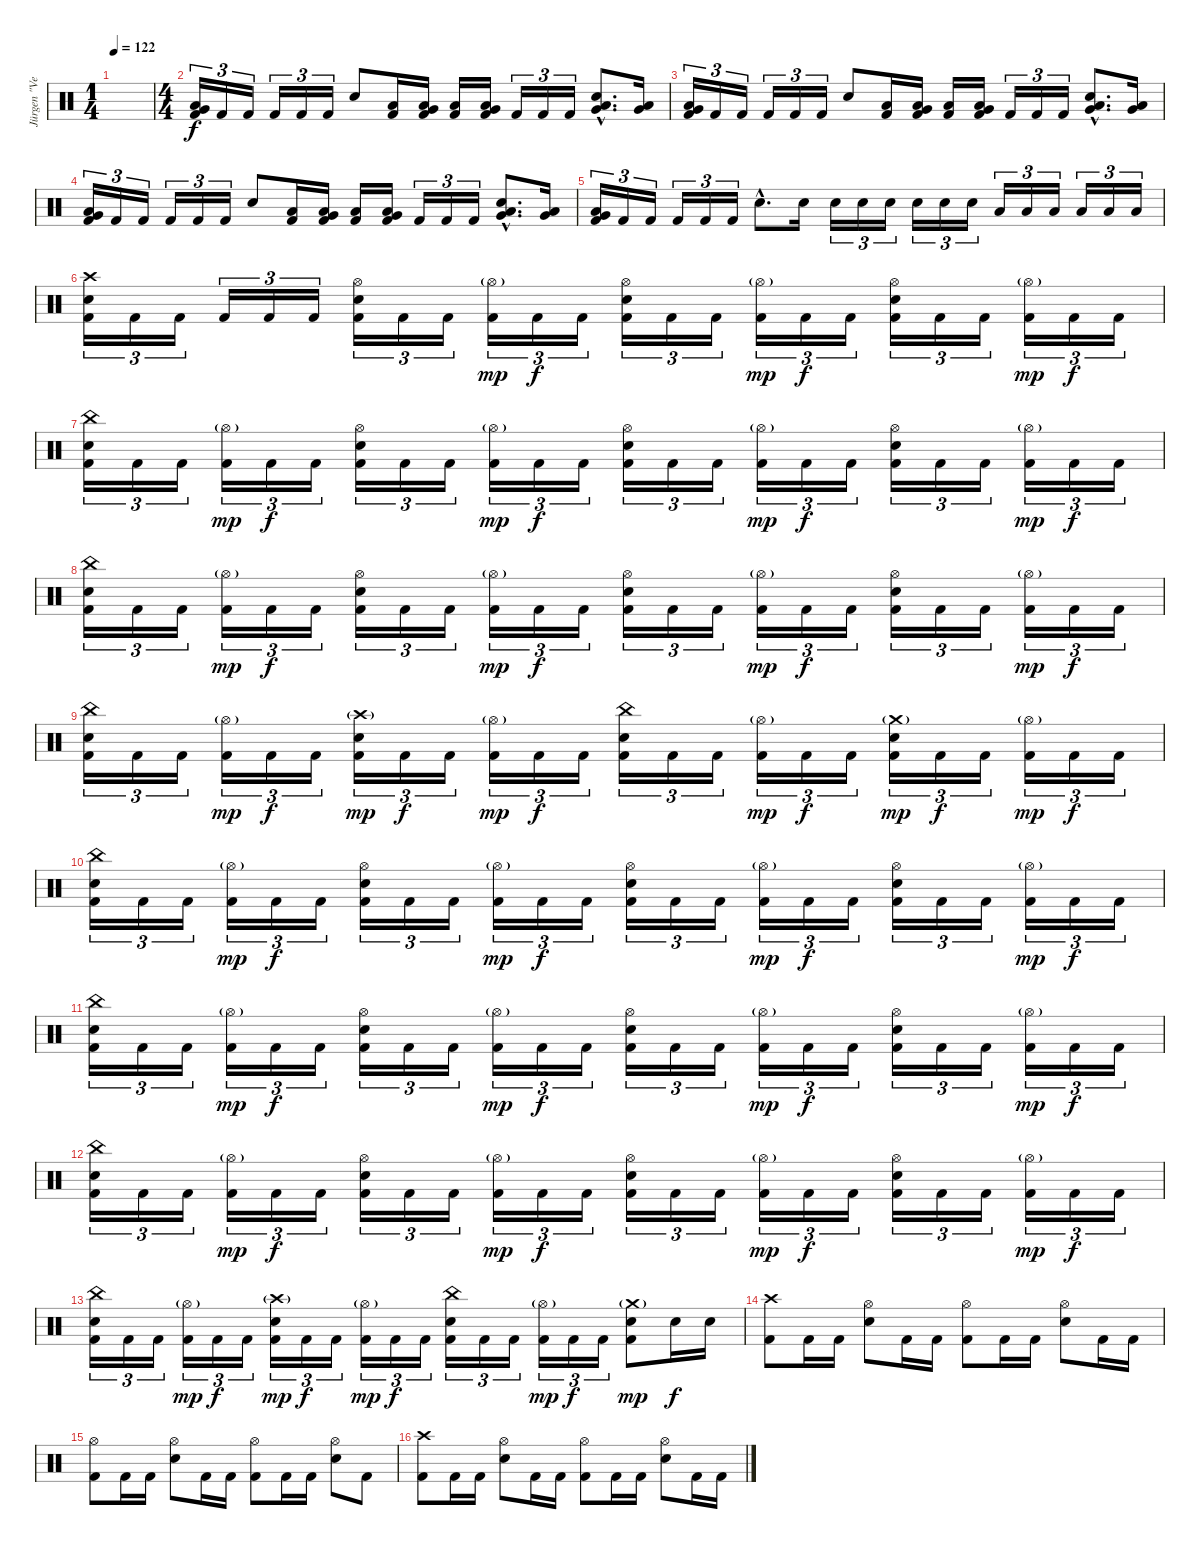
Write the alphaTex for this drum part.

\track ("Jürgen \"Ventor\" Reil Drums" "Jürgen \"Ve") {instrument percussion}
\staff {score}
\articulation defaults
\ts (1 4)
\tempo 122
\clef neutral
\ks c
|
\ts (4 4)
("Very Low Tom (hit)" "Low Floor Tom (hit)" "Kick (hit) 2").16{tu (3 2)} "Kick (hit) 2".16{tu (3 2)} "Kick (hit) 2".16{tu (3 2)} "Kick (hit) 2".16{tu (3 2)} "Kick (hit) 2".16{tu (3 2)} "Kick (hit) 2".16{tu (3 2)} "Snare (hit) 2".8 ("Low Floor Tom (hit)" "Kick (hit) 2").16 ("Low Floor Tom (hit)" "Very Low Tom (hit)" "Kick (hit) 2").16 ("Low Floor Tom (hit)" "Kick (hit) 2").16 ("Very Low Tom (hit)" "Low Floor Tom (hit)" "Kick (hit) 2").16 "Kick (hit) 2".16{tu (3 2)} "Kick (hit) 2".16{tu (3 2)} "Kick (hit) 2".16{tu (3 2)} ("Very Low Tom (hit)"{hac} "Low Floor Tom (hit)"{hac} "Snare (hit) 2"{hac}).8{d} ("Low Floor Tom (hit)" "Very Low Tom (hit)").16 |
("Very Low Tom (hit)" "Low Floor Tom (hit)" "Kick (hit) 2").16{tu (3 2)} "Kick (hit) 2".16{tu (3 2)} "Kick (hit) 2".16{tu (3 2)} "Kick (hit) 2".16{tu (3 2)} "Kick (hit) 2".16{tu (3 2)} "Kick (hit) 2".16{tu (3 2)} "Snare (hit) 2".8 ("Low Floor Tom (hit)" "Kick (hit) 2").16 ("Low Floor Tom (hit)" "Very Low Tom (hit)" "Kick (hit) 2").16 ("Low Floor Tom (hit)" "Kick (hit) 2").16 ("Very Low Tom (hit)" "Low Floor Tom (hit)" "Kick (hit) 2").16 "Kick (hit) 2".16{tu (3 2)} "Kick (hit) 2".16{tu (3 2)} "Kick (hit) 2".16{tu (3 2)} ("Very Low Tom (hit)"{hac} "Low Floor Tom (hit)"{hac} "Snare (hit) 2"{hac}).8{d} ("Low Floor Tom (hit)" "Very Low Tom (hit)").16 |
("Very Low Tom (hit)" "Low Floor Tom (hit)" "Kick (hit) 2").16{tu (3 2)} "Kick (hit) 2".16{tu (3 2)} "Kick (hit) 2".16{tu (3 2)} "Kick (hit) 2".16{tu (3 2)} "Kick (hit) 2".16{tu (3 2)} "Kick (hit) 2".16{tu (3 2)} "Snare (hit) 2".8 ("Low Floor Tom (hit)" "Kick (hit) 2").16 ("Low Floor Tom (hit)" "Very Low Tom (hit)" "Kick (hit) 2").16 ("Low Floor Tom (hit)" "Kick (hit) 2").16 ("Very Low Tom (hit)" "Low Floor Tom (hit)" "Kick (hit) 2").16 "Kick (hit) 2".16{tu (3 2)} "Kick (hit) 2".16{tu (3 2)} "Kick (hit) 2".16{tu (3 2)} ("Very Low Tom (hit)"{hac} "Low Floor Tom (hit)"{hac} "Snare (hit) 2"{hac}).8{d} ("Low Floor Tom (hit)" "Very Low Tom (hit)").16 |
("Very Low Tom (hit)" "Low Floor Tom (hit)" "Kick (hit) 2").16{tu (3 2)} "Kick (hit) 2".16{tu (3 2)} "Kick (hit) 2".16{tu (3 2)} "Kick (hit) 2".16{tu (3 2)} "Kick (hit) 2".16{tu (3 2)} "Kick (hit) 2".16{tu (3 2)} "Snare (hit) 2"{hac}.8{d} "Snare (hit) 2".16 "Snare (hit) 2".16{tu (3 2)} "Snare (hit) 2".16{tu (3 2)} "Snare (hit) 2".16{tu (3 2)} "Snare (hit) 2".16{tu (3 2)} "Snare (hit) 2".16{tu (3 2)} "Snare (hit) 2".16{tu (3 2)} "Low Tom (hit)".16{tu (3 2)} "Low Tom (hit)".16{tu (3 2)} "Low Tom (hit)".16{tu (3 2)} "Low Tom (hit)".16{tu (3 2)} "Low Tom (hit)".16{tu (3 2)} "Low Tom (hit)".16{tu (3 2)} |
("Crash high (hit)" "Snare (hit) 2" "Kick (hit) 2").16{tu (3 2)} "Kick (hit) 2".16{tu (3 2)} "Kick (hit) 2".16{tu (3 2)} "Kick (hit) 2".16{tu (3 2)} "Kick (hit) 2".16{tu (3 2)} "Kick (hit) 2".16{tu (3 2)} ("Hi-Hat (open)" "Snare (hit) 2" "Kick (hit) 2").16{tu (3 2)} "Kick (hit) 2".16{tu (3 2)} "Kick (hit) 2".16{tu (3 2)} ("Hi-Hat (open)"{g} "Kick (hit) 2").16{tu (3 2) dy mp} "Kick (hit) 2".16{tu (3 2) dy f} "Kick (hit) 2".16{tu (3 2)} ("Hi-Hat (open)" "Snare (hit) 2" "Kick (hit) 2").16{tu (3 2)} "Kick (hit) 2".16{tu (3 2)} "Kick (hit) 2".16{tu (3 2)} ("Hi-Hat (open)"{g} "Kick (hit) 2").16{tu (3 2) dy mp} "Kick (hit) 2".16{tu (3 2) dy f} "Kick (hit) 2".16{tu (3 2)} ("Hi-Hat (open)" "Snare (hit) 2" "Kick (hit) 2").16{tu (3 2)} "Kick (hit) 2".16{tu (3 2)} "Kick (hit) 2".16{tu (3 2)} ("Hi-Hat (open)"{g} "Kick (hit) 2").16{tu (3 2) dy mp} "Kick (hit) 2".16{tu (3 2) dy f} "Kick (hit) 2".16{tu (3 2)} |
("China (hit)" "Snare (hit) 2" "Kick (hit) 2").16{tu (3 2)} "Kick (hit) 2".16{tu (3 2)} "Kick (hit) 2".16{tu (3 2)} ("Hi-Hat (open)"{g} "Kick (hit) 2").16{tu (3 2) dy mp} "Kick (hit) 2".16{tu (3 2) dy f} "Kick (hit) 2".16{tu (3 2)} ("Hi-Hat (open)" "Snare (hit) 2" "Kick (hit) 2").16{tu (3 2)} "Kick (hit) 2".16{tu (3 2)} "Kick (hit) 2".16{tu (3 2)} ("Hi-Hat (open)"{g} "Kick (hit) 2").16{tu (3 2) dy mp} "Kick (hit) 2".16{tu (3 2) dy f} "Kick (hit) 2".16{tu (3 2)} ("Hi-Hat (open)" "Snare (hit) 2" "Kick (hit) 2").16{tu (3 2)} "Kick (hit) 2".16{tu (3 2)} "Kick (hit) 2".16{tu (3 2)} ("Hi-Hat (open)"{g} "Kick (hit) 2").16{tu (3 2) dy mp} "Kick (hit) 2".16{tu (3 2) dy f} "Kick (hit) 2".16{tu (3 2)} ("Hi-Hat (open)" "Snare (hit) 2" "Kick (hit) 2").16{tu (3 2)} "Kick (hit) 2".16{tu (3 2)} "Kick (hit) 2".16{tu (3 2)} ("Hi-Hat (open)"{g} "Kick (hit) 2").16{tu (3 2) dy mp} "Kick (hit) 2".16{tu (3 2) dy f} "Kick (hit) 2".16{tu (3 2)} |
("China (hit)" "Snare (hit) 2" "Kick (hit) 2").16{tu (3 2)} "Kick (hit) 2".16{tu (3 2)} "Kick (hit) 2".16{tu (3 2)} ("Hi-Hat (open)"{g} "Kick (hit) 2").16{tu (3 2) dy mp} "Kick (hit) 2".16{tu (3 2) dy f} "Kick (hit) 2".16{tu (3 2)} ("Hi-Hat (open)" "Snare (hit) 2" "Kick (hit) 2").16{tu (3 2)} "Kick (hit) 2".16{tu (3 2)} "Kick (hit) 2".16{tu (3 2)} ("Hi-Hat (open)"{g} "Kick (hit) 2").16{tu (3 2) dy mp} "Kick (hit) 2".16{tu (3 2) dy f} "Kick (hit) 2".16{tu (3 2)} ("Hi-Hat (open)" "Snare (hit) 2" "Kick (hit) 2").16{tu (3 2)} "Kick (hit) 2".16{tu (3 2)} "Kick (hit) 2".16{tu (3 2)} ("Hi-Hat (open)"{g} "Kick (hit) 2").16{tu (3 2) dy mp} "Kick (hit) 2".16{tu (3 2) dy f} "Kick (hit) 2".16{tu (3 2)} ("Hi-Hat (open)" "Snare (hit) 2" "Kick (hit) 2").16{tu (3 2)} "Kick (hit) 2".16{tu (3 2)} "Kick (hit) 2".16{tu (3 2)} ("Hi-Hat (open)"{g} "Kick (hit) 2").16{tu (3 2) dy mp} "Kick (hit) 2".16{tu (3 2) dy f} "Kick (hit) 2".16{tu (3 2)} |
("China (hit)" "Snare (hit) 2" "Kick (hit) 2").16{tu (3 2)} "Kick (hit) 2".16{tu (3 2)} "Kick (hit) 2".16{tu (3 2)} ("Hi-Hat (open)"{g} "Kick (hit) 2").16{tu (3 2) dy mp} "Kick (hit) 2".16{tu (3 2) dy f} "Kick (hit) 2".16{tu (3 2)} ("Crash high (hit)"{g} "Snare (hit) 2" "Kick (hit) 2").16{tu (3 2) dy mp} "Kick (hit) 2".16{tu (3 2) dy f} "Kick (hit) 2".16{tu (3 2)} ("Hi-Hat (open)"{g} "Kick (hit) 2").16{tu (3 2) dy mp} "Kick (hit) 2".16{tu (3 2) dy f} "Kick (hit) 2".16{tu (3 2)} ("China (hit)" "Snare (hit) 2" "Kick (hit) 2").16{tu (3 2)} "Kick (hit) 2".16{tu (3 2)} "Kick (hit) 2".16{tu (3 2)} ("Hi-Hat (open)"{g} "Kick (hit) 2").16{tu (3 2) dy mp} "Kick (hit) 2".16{tu (3 2) dy f} "Kick (hit) 2".16{tu (3 2)} ("Crash medium (hit)"{g} "Snare (hit) 2" "Kick (hit) 2").16{tu (3 2) dy mp} "Kick (hit) 2".16{tu (3 2) dy f} "Kick (hit) 2".16{tu (3 2)} ("Hi-Hat (open)"{g} "Kick (hit) 2").16{tu (3 2) dy mp} "Kick (hit) 2".16{tu (3 2) dy f} "Kick (hit) 2".16{tu (3 2)} |
("China (hit)" "Snare (hit) 2" "Kick (hit) 2").16{tu (3 2)} "Kick (hit) 2".16{tu (3 2)} "Kick (hit) 2".16{tu (3 2)} ("Hi-Hat (open)"{g} "Kick (hit) 2").16{tu (3 2) dy mp} "Kick (hit) 2".16{tu (3 2) dy f} "Kick (hit) 2".16{tu (3 2)} ("Hi-Hat (open)" "Snare (hit) 2" "Kick (hit) 2").16{tu (3 2)} "Kick (hit) 2".16{tu (3 2)} "Kick (hit) 2".16{tu (3 2)} ("Hi-Hat (open)"{g} "Kick (hit) 2").16{tu (3 2) dy mp} "Kick (hit) 2".16{tu (3 2) dy f} "Kick (hit) 2".16{tu (3 2)} ("Hi-Hat (open)" "Snare (hit) 2" "Kick (hit) 2").16{tu (3 2)} "Kick (hit) 2".16{tu (3 2)} "Kick (hit) 2".16{tu (3 2)} ("Hi-Hat (open)"{g} "Kick (hit) 2").16{tu (3 2) dy mp} "Kick (hit) 2".16{tu (3 2) dy f} "Kick (hit) 2".16{tu (3 2)} ("Hi-Hat (open)" "Snare (hit) 2" "Kick (hit) 2").16{tu (3 2)} "Kick (hit) 2".16{tu (3 2)} "Kick (hit) 2".16{tu (3 2)} ("Hi-Hat (open)"{g} "Kick (hit) 2").16{tu (3 2) dy mp} "Kick (hit) 2".16{tu (3 2) dy f} "Kick (hit) 2".16{tu (3 2)} |
("China (hit)" "Snare (hit) 2" "Kick (hit) 2").16{tu (3 2)} "Kick (hit) 2".16{tu (3 2)} "Kick (hit) 2".16{tu (3 2)} ("Hi-Hat (open)"{g} "Kick (hit) 2").16{tu (3 2) dy mp} "Kick (hit) 2".16{tu (3 2) dy f} "Kick (hit) 2".16{tu (3 2)} ("Hi-Hat (open)" "Snare (hit) 2" "Kick (hit) 2").16{tu (3 2)} "Kick (hit) 2".16{tu (3 2)} "Kick (hit) 2".16{tu (3 2)} ("Hi-Hat (open)"{g} "Kick (hit) 2").16{tu (3 2) dy mp} "Kick (hit) 2".16{tu (3 2) dy f} "Kick (hit) 2".16{tu (3 2)} ("Hi-Hat (open)" "Snare (hit) 2" "Kick (hit) 2").16{tu (3 2)} "Kick (hit) 2".16{tu (3 2)} "Kick (hit) 2".16{tu (3 2)} ("Hi-Hat (open)"{g} "Kick (hit) 2").16{tu (3 2) dy mp} "Kick (hit) 2".16{tu (3 2) dy f} "Kick (hit) 2".16{tu (3 2)} ("Hi-Hat (open)" "Snare (hit) 2" "Kick (hit) 2").16{tu (3 2)} "Kick (hit) 2".16{tu (3 2)} "Kick (hit) 2".16{tu (3 2)} ("Hi-Hat (open)"{g} "Kick (hit) 2").16{tu (3 2) dy mp} "Kick (hit) 2".16{tu (3 2) dy f} "Kick (hit) 2".16{tu (3 2)} |
("China (hit)" "Snare (hit) 2" "Kick (hit) 2").16{tu (3 2)} "Kick (hit) 2".16{tu (3 2)} "Kick (hit) 2".16{tu (3 2)} ("Hi-Hat (open)"{g} "Kick (hit) 2").16{tu (3 2) dy mp} "Kick (hit) 2".16{tu (3 2) dy f} "Kick (hit) 2".16{tu (3 2)} ("Hi-Hat (open)" "Snare (hit) 2" "Kick (hit) 2").16{tu (3 2)} "Kick (hit) 2".16{tu (3 2)} "Kick (hit) 2".16{tu (3 2)} ("Hi-Hat (open)"{g} "Kick (hit) 2").16{tu (3 2) dy mp} "Kick (hit) 2".16{tu (3 2) dy f} "Kick (hit) 2".16{tu (3 2)} ("Hi-Hat (open)" "Snare (hit) 2" "Kick (hit) 2").16{tu (3 2)} "Kick (hit) 2".16{tu (3 2)} "Kick (hit) 2".16{tu (3 2)} ("Hi-Hat (open)"{g} "Kick (hit) 2").16{tu (3 2) dy mp} "Kick (hit) 2".16{tu (3 2) dy f} "Kick (hit) 2".16{tu (3 2)} ("Hi-Hat (open)" "Snare (hit) 2" "Kick (hit) 2").16{tu (3 2)} "Kick (hit) 2".16{tu (3 2)} "Kick (hit) 2".16{tu (3 2)} ("Hi-Hat (open)"{g} "Kick (hit) 2").16{tu (3 2) dy mp} "Kick (hit) 2".16{tu (3 2) dy f} "Kick (hit) 2".16{tu (3 2)} |
("China (hit)" "Snare (hit) 2" "Kick (hit) 2").16{tu (3 2)} "Kick (hit) 2".16{tu (3 2)} "Kick (hit) 2".16{tu (3 2)} ("Hi-Hat (open)"{g} "Kick (hit) 2").16{tu (3 2) dy mp} "Kick (hit) 2".16{tu (3 2) dy f} "Kick (hit) 2".16{tu (3 2)} ("Crash high (hit)"{g} "Snare (hit) 2" "Kick (hit) 2").16{tu (3 2) dy mp} "Kick (hit) 2".16{tu (3 2) dy f} "Kick (hit) 2".16{tu (3 2)} ("Hi-Hat (open)"{g} "Kick (hit) 2").16{tu (3 2) dy mp} "Kick (hit) 2".16{tu (3 2) dy f} "Kick (hit) 2".16{tu (3 2)} ("China (hit)" "Snare (hit) 2" "Kick (hit) 2").16{tu (3 2)} "Kick (hit) 2".16{tu (3 2)} "Kick (hit) 2".16{tu (3 2)} ("Hi-Hat (open)"{g} "Kick (hit) 2").16{tu (3 2) dy mp} "Kick (hit) 2".16{tu (3 2) dy f} "Kick (hit) 2".16{tu (3 2)} ("Crash medium (hit)"{g} "Snare (hit) 2" "Kick (hit) 2").8{dy mp} "Snare (hit) 2".16{dy f} "Snare (hit) 2".16 |
("Crash high (hit)" "Kick (hit) 2").8 "Kick (hit) 2".16 "Kick (hit) 2".16 ("Hi-Hat (open)" "Snare (hit) 2").8 "Kick (hit) 2".16 "Kick (hit) 2".16 ("Hi-Hat (open)" "Kick (hit) 2").8 "Kick (hit) 2".16 "Kick (hit) 2".16 ("Hi-Hat (open)" "Snare (hit) 2").8 "Kick (hit) 2".16 "Kick (hit) 2".16 |
("Hi-Hat (open)" "Kick (hit) 2").8 "Kick (hit) 2".16 "Kick (hit) 2".16 ("Hi-Hat (open)" "Snare (hit) 2").8 "Kick (hit) 2".16 "Kick (hit) 2".16 ("Hi-Hat (open)" "Kick (hit) 2").8 "Kick (hit) 2".16 "Kick (hit) 2".16 ("Hi-Hat (open)" "Snare (hit) 2").8 "Kick (hit) 2".8 |
("Crash high (hit)" "Kick (hit) 2").8 "Kick (hit) 2".16 "Kick (hit) 2".16 ("Hi-Hat (open)" "Snare (hit) 2").8 "Kick (hit) 2".16 "Kick (hit) 2".16 ("Hi-Hat (open)" "Kick (hit) 2").8 "Kick (hit) 2".16 "Kick (hit) 2".16 ("Hi-Hat (open)" "Snare (hit) 2").8 "Kick (hit) 2".16 "Kick (hit) 2".16
